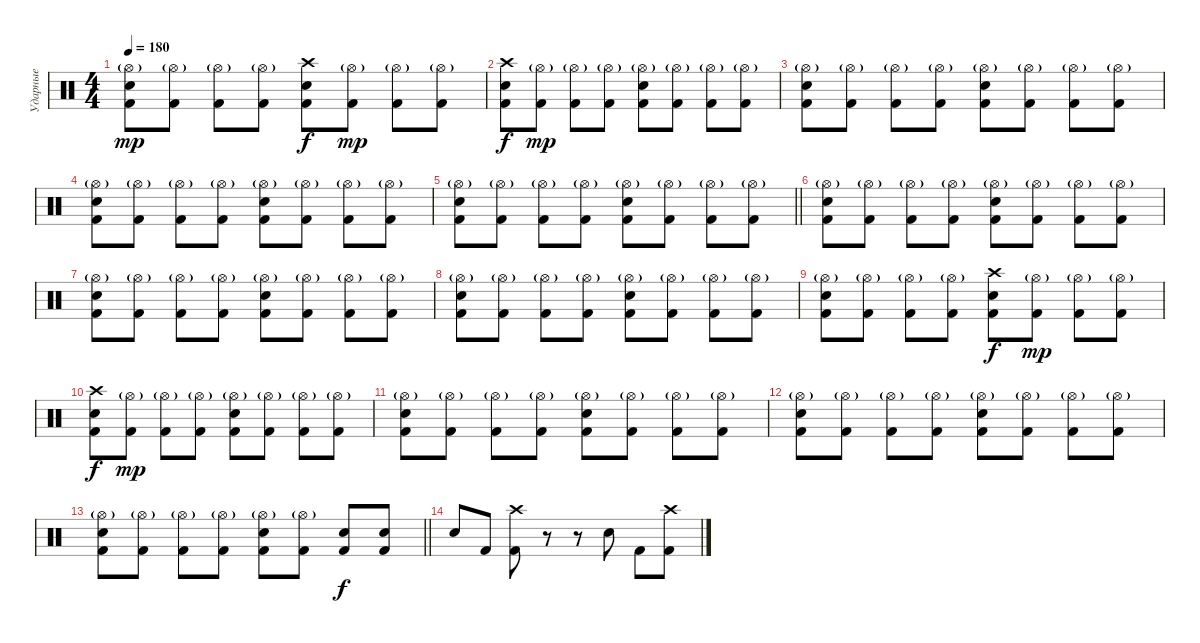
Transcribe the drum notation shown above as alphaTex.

\track ("Ударные" "Ударные") {instrument percussion}
\staff {score}
\articulation defaults
\ts (4 4)
\tempo 180
\clef neutral
\ks c
("Hi-Hat (open)"{g} "Electric Snare (hit)" "Kick (hit) 2").8{dy mp} ("Hi-Hat (open)"{g} "Kick (hit) 2").8 ("Hi-Hat (open)"{g} "Kick (hit) 2").8 ("Hi-Hat (open)"{g} "Kick (hit) 2").8 ("Crash high (hit)" "Electric Snare (hit)" "Kick (hit) 2").8{dy f} ("Hi-Hat (open)"{g} "Kick (hit) 2").8{dy mp} ("Hi-Hat (open)"{g} "Kick (hit) 2").8 ("Hi-Hat (open)"{g} "Kick (hit) 2").8 |
("Crash high (hit)" "Electric Snare (hit)" "Kick (hit) 2").8{dy f} ("Hi-Hat (open)"{g} "Kick (hit) 2").8{dy mp} ("Hi-Hat (open)"{g} "Kick (hit) 2").8 ("Hi-Hat (open)"{g} "Kick (hit) 2").8 ("Hi-Hat (open)"{g} "Electric Snare (hit)" "Kick (hit) 2").8 ("Hi-Hat (open)"{g} "Kick (hit) 2").8 ("Hi-Hat (open)"{g} "Kick (hit) 2").8 ("Hi-Hat (open)"{g} "Kick (hit) 2").8 |
("Hi-Hat (open)"{g} "Electric Snare (hit)" "Kick (hit) 2").8 ("Hi-Hat (open)"{g} "Kick (hit) 2").8 ("Hi-Hat (open)"{g} "Kick (hit) 2").8 ("Hi-Hat (open)"{g} "Kick (hit) 2").8 ("Hi-Hat (open)"{g} "Electric Snare (hit)" "Kick (hit) 2").8 ("Hi-Hat (open)"{g} "Kick (hit) 2").8 ("Hi-Hat (open)"{g} "Kick (hit) 2").8 ("Hi-Hat (open)"{g} "Kick (hit) 2").8 |
("Hi-Hat (open)"{g} "Electric Snare (hit)" "Kick (hit) 2").8 ("Hi-Hat (open)"{g} "Kick (hit) 2").8 ("Hi-Hat (open)"{g} "Kick (hit) 2").8 ("Hi-Hat (open)"{g} "Kick (hit) 2").8 ("Hi-Hat (open)"{g} "Electric Snare (hit)" "Kick (hit) 2").8 ("Hi-Hat (open)"{g} "Kick (hit) 2").8 ("Hi-Hat (open)"{g} "Kick (hit) 2").8 ("Hi-Hat (open)"{g} "Kick (hit) 2").8 |
\barLineRight lightlight
("Hi-Hat (open)"{g} "Electric Snare (hit)" "Kick (hit) 2").8 ("Hi-Hat (open)"{g} "Kick (hit) 2").8 ("Hi-Hat (open)"{g} "Kick (hit) 2").8 ("Hi-Hat (open)"{g} "Kick (hit) 2").8 ("Hi-Hat (open)"{g} "Electric Snare (hit)" "Kick (hit) 2").8 ("Hi-Hat (open)"{g} "Kick (hit) 2").8 ("Hi-Hat (open)"{g} "Kick (hit) 2").8 ("Hi-Hat (open)"{g} "Kick (hit) 2").8 |
("Hi-Hat (open)"{g} "Electric Snare (hit)" "Kick (hit) 2").8 ("Hi-Hat (open)"{g} "Kick (hit) 2").8 ("Hi-Hat (open)"{g} "Kick (hit) 2").8 ("Hi-Hat (open)"{g} "Kick (hit) 2").8 ("Hi-Hat (open)"{g} "Electric Snare (hit)" "Kick (hit) 2").8 ("Hi-Hat (open)"{g} "Kick (hit) 2").8 ("Hi-Hat (open)"{g} "Kick (hit) 2").8 ("Hi-Hat (open)"{g} "Kick (hit) 2").8 |
("Hi-Hat (open)"{g} "Electric Snare (hit)" "Kick (hit) 2").8 ("Hi-Hat (open)"{g} "Kick (hit) 2").8 ("Hi-Hat (open)"{g} "Kick (hit) 2").8 ("Hi-Hat (open)"{g} "Kick (hit) 2").8 ("Hi-Hat (open)"{g} "Electric Snare (hit)" "Kick (hit) 2").8 ("Hi-Hat (open)"{g} "Kick (hit) 2").8 ("Hi-Hat (open)"{g} "Kick (hit) 2").8 ("Hi-Hat (open)"{g} "Kick (hit) 2").8 |
("Hi-Hat (open)"{g} "Electric Snare (hit)" "Kick (hit) 2").8 ("Hi-Hat (open)"{g} "Kick (hit) 2").8 ("Hi-Hat (open)"{g} "Kick (hit) 2").8 ("Hi-Hat (open)"{g} "Kick (hit) 2").8 ("Hi-Hat (open)"{g} "Electric Snare (hit)" "Kick (hit) 2").8 ("Hi-Hat (open)"{g} "Kick (hit) 2").8 ("Hi-Hat (open)"{g} "Kick (hit) 2").8 ("Hi-Hat (open)"{g} "Kick (hit) 2").8 |
("Hi-Hat (open)"{g} "Electric Snare (hit)" "Kick (hit) 2").8 ("Hi-Hat (open)"{g} "Kick (hit) 2").8 ("Hi-Hat (open)"{g} "Kick (hit) 2").8 ("Hi-Hat (open)"{g} "Kick (hit) 2").8 ("Crash high (hit)" "Electric Snare (hit)" "Kick (hit) 2").8{dy f} ("Hi-Hat (open)"{g} "Kick (hit) 2").8{dy mp} ("Hi-Hat (open)"{g} "Kick (hit) 2").8 ("Hi-Hat (open)"{g} "Kick (hit) 2").8 |
("Crash high (hit)" "Electric Snare (hit)" "Kick (hit) 2").8{dy f} ("Hi-Hat (open)"{g} "Kick (hit) 2").8{dy mp} ("Hi-Hat (open)"{g} "Kick (hit) 2").8 ("Hi-Hat (open)"{g} "Kick (hit) 2").8 ("Hi-Hat (open)"{g} "Electric Snare (hit)" "Kick (hit) 2").8 ("Hi-Hat (open)"{g} "Kick (hit) 2").8 ("Hi-Hat (open)"{g} "Kick (hit) 2").8 ("Hi-Hat (open)"{g} "Kick (hit) 2").8 |
("Hi-Hat (open)"{g} "Electric Snare (hit)" "Kick (hit) 2").8 ("Hi-Hat (open)"{g} "Kick (hit) 2").8 ("Hi-Hat (open)"{g} "Kick (hit) 2").8 ("Hi-Hat (open)"{g} "Kick (hit) 2").8 ("Hi-Hat (open)"{g} "Electric Snare (hit)" "Kick (hit) 2").8 ("Hi-Hat (open)"{g} "Kick (hit) 2").8 ("Hi-Hat (open)"{g} "Kick (hit) 2").8 ("Hi-Hat (open)"{g} "Kick (hit) 2").8 |
("Hi-Hat (open)"{g} "Electric Snare (hit)" "Kick (hit) 2").8 ("Hi-Hat (open)"{g} "Kick (hit) 2").8 ("Hi-Hat (open)"{g} "Kick (hit) 2").8 ("Hi-Hat (open)"{g} "Kick (hit) 2").8 ("Hi-Hat (open)"{g} "Electric Snare (hit)" "Kick (hit) 2").8 ("Hi-Hat (open)"{g} "Kick (hit) 2").8 ("Hi-Hat (open)"{g} "Kick (hit) 2").8 ("Hi-Hat (open)"{g} "Kick (hit) 2").8 |
\barLineRight lightlight
("Hi-Hat (open)"{g} "Electric Snare (hit)" "Kick (hit) 2").8 ("Hi-Hat (open)"{g} "Kick (hit) 2").8 ("Hi-Hat (open)"{g} "Kick (hit) 2").8 ("Hi-Hat (open)"{g} "Kick (hit) 2").8 ("Hi-Hat (open)"{g} "Electric Snare (hit)" "Kick (hit) 2").8 ("Hi-Hat (open)"{g} "Kick (hit) 2").8 ("Electric Snare (hit)" "Kick (hit) 2").8{dy f} ("Electric Snare (hit)" "Kick (hit) 2").8 |
"Electric Snare (hit)".8 "Kick (hit) 2".8 ("Crash high (hit)" "Kick (hit) 2").8 r.8 r.8 "Electric Snare (hit)".8 "Kick (hit) 2".8 ("Crash high (hit)" "Kick (hit) 2").8
